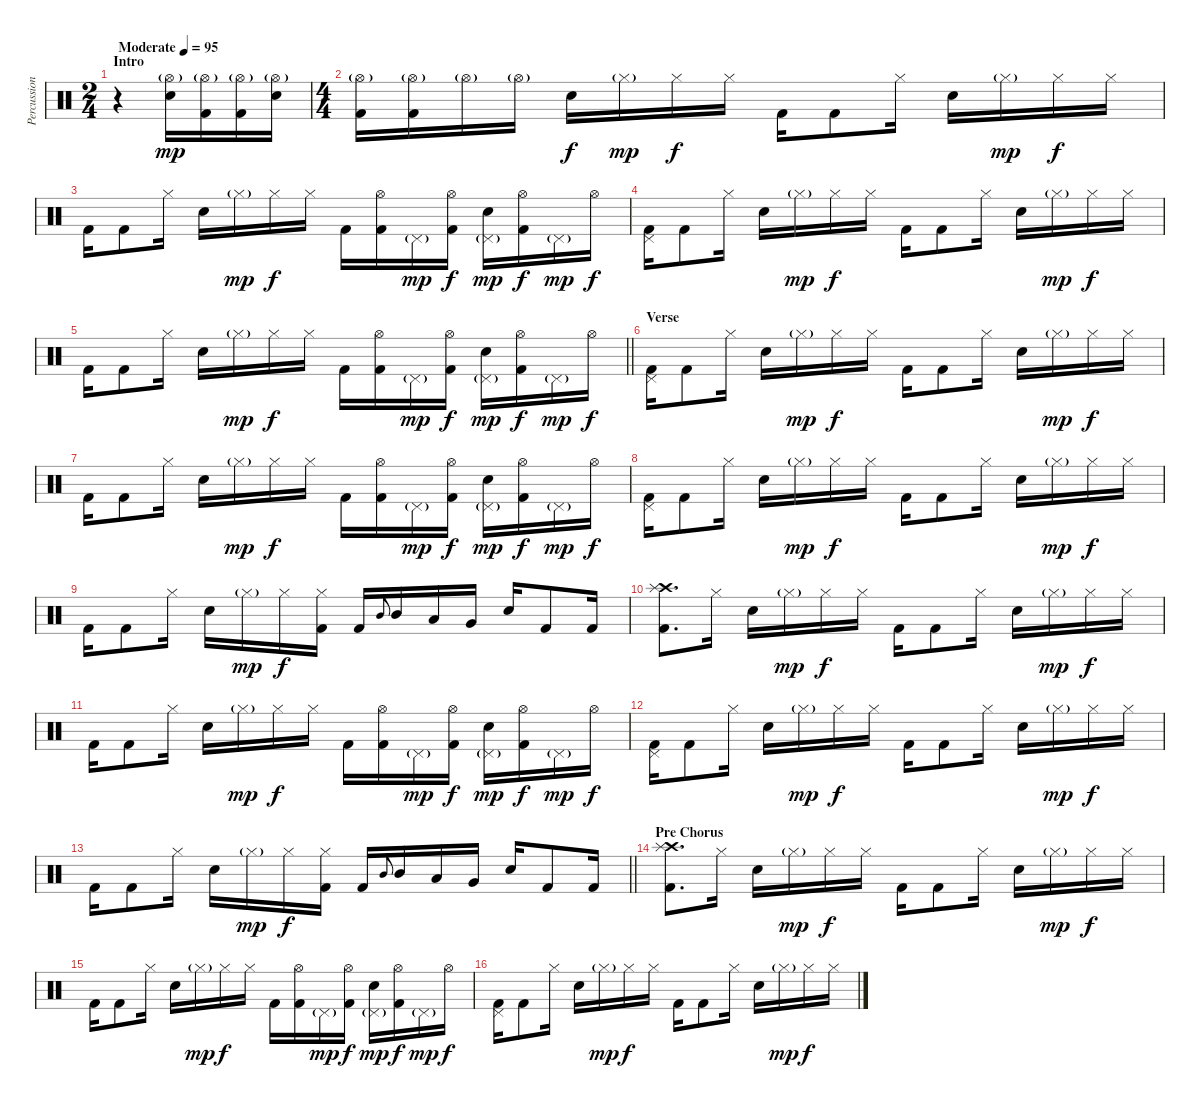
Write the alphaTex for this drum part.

\track ("Percussion" "Percussion") {instrument percussion}
\staff {score}
\articulation defaults
\ts (2 4)
\section ("" "Intro")
\tempo (95 "Moderate")
\clef neutral
\ks c
r.4{dy mp} ("Hi-Hat (open)"{g} "Electric Snare (hit)").16 ("Hi-Hat (open)"{g} "Kick (hit) 2").16 ("Hi-Hat (open)"{g} "Kick (hit) 2").16 ("Hi-Hat (open)"{g} "Electric Snare (hit)").16 |
\ts (4 4)
("Hi-Hat (open)"{g} "Kick (hit) 2").16 ("Hi-Hat (open)"{g} "Kick (hit) 2").16 "Hi-Hat (open)"{g}.16 "Hi-Hat (open)"{g}.16 "Electric Snare (hit)".16{dy f} "Hi-Hat (closed)"{g}.16{dy mp} "Hi-Hat (closed)".16{dy f} "Hi-Hat (closed)".16 "Kick (hit) 2".16 "Kick (hit) 2".8 "Hi-Hat (closed)".16 "Electric Snare (hit)".16 "Hi-Hat (closed)"{g}.16{dy mp} "Hi-Hat (closed)".16{dy f} "Hi-Hat (closed)".16 |
"Kick (hit) 2".16 "Kick (hit) 2".8 "Hi-Hat (closed)".16 "Electric Snare (hit)".16 "Hi-Hat (closed)"{g}.16{dy mp} "Hi-Hat (closed)".16{dy f} "Hi-Hat (closed)".16 "Kick (hit) 2".16 ("Hi-Hat (open)" "Kick (hit) 2").16 "Pedal Hi-Hat (hit)"{g}.16{dy mp} ("Hi-Hat (open)" "Kick (hit) 2").16{dy f} ("Pedal Hi-Hat (hit)"{g} "Electric Snare (hit)").16{dy mp} ("Hi-Hat (open)" "Kick (hit) 2").16{dy f} "Pedal Hi-Hat (hit)"{g}.16{dy mp} "Hi-Hat (open)".16{dy f} |
("Pedal Hi-Hat (hit)" "Kick (hit) 2").16 "Kick (hit) 2".8 "Hi-Hat (closed)".16 "Electric Snare (hit)".16 "Hi-Hat (closed)"{g}.16{dy mp} "Hi-Hat (closed)".16{dy f} "Hi-Hat (closed)".16 "Kick (hit) 2".16 "Kick (hit) 2".8 "Hi-Hat (closed)".16 "Electric Snare (hit)".16 "Hi-Hat (closed)"{g}.16{dy mp} "Hi-Hat (closed)".16{dy f} "Hi-Hat (closed)".16 |
\barLineRight lightlight "Kick (hit) 2".16 "Kick (hit) 2".8 "Hi-Hat (closed)".16 "Electric Snare (hit)".16 "Hi-Hat (closed)"{g}.16{dy mp} "Hi-Hat (closed)".16{dy f} "Hi-Hat (closed)".16 "Kick (hit) 2".16
("Hi-Hat (open)" "Kick (hit) 2").16 "Pedal Hi-Hat (hit)"{g}.16{dy mp} ("Hi-Hat (open)" "Kick (hit) 2").16{dy f} ("Pedal Hi-Hat (hit)"{g} "Electric Snare (hit)").16{dy mp} ("Hi-Hat (open)" "Kick (hit) 2").16{dy f} "Pedal Hi-Hat (hit)"{g}.16{dy mp} "Hi-Hat (open)".16{dy f} |
\section ("" "Verse")
("Pedal Hi-Hat (hit)" "Kick (hit) 2").16 "Kick (hit) 2".8 "Hi-Hat (closed)".16 "Electric Snare (hit)".16 "Hi-Hat (closed)"{g}.16{dy mp} "Hi-Hat (closed)".16{dy f} "Hi-Hat (closed)".16 "Kick (hit) 2".16 "Kick (hit) 2".8 "Hi-Hat (closed)".16 "Electric Snare (hit)".16 "Hi-Hat (closed)"{g}.16{dy mp} "Hi-Hat (closed)".16{dy f} "Hi-Hat (closed)".16 |
"Kick (hit) 2".16 "Kick (hit) 2".8 "Hi-Hat (closed)".16 "Electric Snare (hit)".16 "Hi-Hat (closed)"{g}.16{dy mp} "Hi-Hat (closed)".16{dy f} "Hi-Hat (closed)".16 "Kick (hit) 2".16 ("Hi-Hat (open)" "Kick (hit) 2").16 "Pedal Hi-Hat (hit)"{g}.16{dy mp} ("Hi-Hat (open)" "Kick (hit) 2").16{dy f} ("Pedal Hi-Hat (hit)"{g} "Electric Snare (hit)").16{dy mp} ("Hi-Hat (open)" "Kick (hit) 2").16{dy f} "Pedal Hi-Hat (hit)"{g}.16{dy mp} "Hi-Hat (open)".16{dy f} |
("Pedal Hi-Hat (hit)" "Kick (hit) 2").16 "Kick (hit) 2".8 "Hi-Hat (closed)".16 "Electric Snare (hit)".16 "Hi-Hat (closed)"{g}.16{dy mp} "Hi-Hat (closed)".16{dy f} "Hi-Hat (closed)".16 "Kick (hit) 2".16 "Kick (hit) 2".8 "Hi-Hat (closed)".16 "Electric Snare (hit)".16 "Hi-Hat (closed)"{g}.16{dy mp} "Hi-Hat (closed)".16{dy f} "Hi-Hat (closed)".16 |
"Kick (hit) 2".16 "Kick (hit) 2".8 "Hi-Hat (closed)".16 "Electric Snare (hit)".16 "Hi-Hat (closed)"{g}.16{dy mp} "Hi-Hat (closed)".16{dy f} ("Hi-Hat (closed)" "Kick (hit) 2").16 "Kick (hit) 2".16 "Mid Tom (hit)".8{gr onbeat} "Mid Tom (hit)".16 "Low Tom (hit)".16 "Very Low Tom (hit)".16 "Electric Snare (hit)".16 "Kick (hit) 2".8 "Kick (hit) 2".16 |
("Crash high (hit)" "Splash (hit)" "Kick (hit) 2").8{d} "Hi-Hat (closed)".16 "Electric Snare (hit)".16 "Hi-Hat (closed)"{g}.16{dy mp} "Hi-Hat (closed)".16{dy f} "Hi-Hat (closed)".16 "Kick (hit) 2".16 "Kick (hit) 2".8 "Hi-Hat (closed)".16 "Electric Snare (hit)".16 "Hi-Hat (closed)"{g}.16{dy mp} "Hi-Hat (closed)".16{dy f} "Hi-Hat (closed)".16 |
"Kick (hit) 2".16 "Kick (hit) 2".8 "Hi-Hat (closed)".16 "Electric Snare (hit)".16 "Hi-Hat (closed)"{g}.16{dy mp} "Hi-Hat (closed)".16{dy f} "Hi-Hat (closed)".16 "Kick (hit) 2".16 ("Hi-Hat (open)" "Kick (hit) 2").16 "Pedal Hi-Hat (hit)"{g}.16{dy mp} ("Hi-Hat (open)" "Kick (hit) 2").16{dy f} ("Pedal Hi-Hat (hit)"{g} "Electric Snare (hit)").16{dy mp} ("Hi-Hat (open)" "Kick (hit) 2").16{dy f} "Pedal Hi-Hat (hit)"{g}.16{dy mp} "Hi-Hat (open)".16{dy f} |
("Pedal Hi-Hat (hit)" "Kick (hit) 2").16 "Kick (hit) 2".8 "Hi-Hat (closed)".16 "Electric Snare (hit)".16 "Hi-Hat (closed)"{g}.16{dy mp} "Hi-Hat (closed)".16{dy f} "Hi-Hat (closed)".16 "Kick (hit) 2".16 "Kick (hit) 2".8 "Hi-Hat (closed)".16 "Electric Snare (hit)".16 "Hi-Hat (closed)"{g}.16{dy mp} "Hi-Hat (closed)".16{dy f} "Hi-Hat (closed)".16 |
\barLineRight lightlight "Kick (hit) 2".16 "Kick (hit) 2".8 "Hi-Hat (closed)".16 "Electric Snare (hit)".16 "Hi-Hat (closed)"{g}.16{dy mp} "Hi-Hat (closed)".16{dy f}
("Hi-Hat (closed)" "Kick (hit) 2").16 "Kick (hit) 2".16 "Mid Tom (hit)".8{gr onbeat} "Mid Tom (hit)".16 "Low Tom (hit)".16 "Very Low Tom (hit)".16 "Electric Snare (hit)".16 "Kick (hit) 2".8 "Kick (hit) 2".16 |
\section ("" "Pre Chorus")
("Crash high (hit)" "Splash (hit)" "Kick (hit) 2").8{d} "Hi-Hat (closed)".16 "Electric Snare (hit)".16 "Hi-Hat (closed)"{g}.16{dy mp} "Hi-Hat (closed)".16{dy f} "Hi-Hat (closed)".16 "Kick (hit) 2".16 "Kick (hit) 2".8 "Hi-Hat (closed)".16 "Electric Snare (hit)".16 "Hi-Hat (closed)"{g}.16{dy mp} "Hi-Hat (closed)".16{dy f} "Hi-Hat (closed)".16 |
"Kick (hit) 2".16 "Kick (hit) 2".8 "Hi-Hat (closed)".16 "Electric Snare (hit)".16 "Hi-Hat (closed)"{g}.16{dy mp} "Hi-Hat (closed)".16{dy f} "Hi-Hat (closed)".16 "Kick (hit) 2".16 ("Hi-Hat (open)" "Kick (hit) 2").16 "Pedal Hi-Hat (hit)"{g}.16{dy mp} ("Hi-Hat (open)" "Kick (hit) 2").16{dy f} ("Pedal Hi-Hat (hit)"{g} "Electric Snare (hit)").16{dy mp} ("Hi-Hat (open)" "Kick (hit) 2").16{dy f} "Pedal Hi-Hat (hit)"{g}.16{dy mp} "Hi-Hat (open)".16{dy f} |
("Pedal Hi-Hat (hit)" "Kick (hit) 2").16 "Kick (hit) 2".8 "Hi-Hat (closed)".16 "Electric Snare (hit)".16 "Hi-Hat (closed)"{g}.16{dy mp} "Hi-Hat (closed)".16{dy f} "Hi-Hat (closed)".16 "Kick (hit) 2".16 "Kick (hit) 2".8 "Hi-Hat (closed)".16 "Electric Snare (hit)".16 "Hi-Hat (closed)"{g}.16{dy mp} "Hi-Hat (closed)".16{dy f} "Hi-Hat (closed)".16
